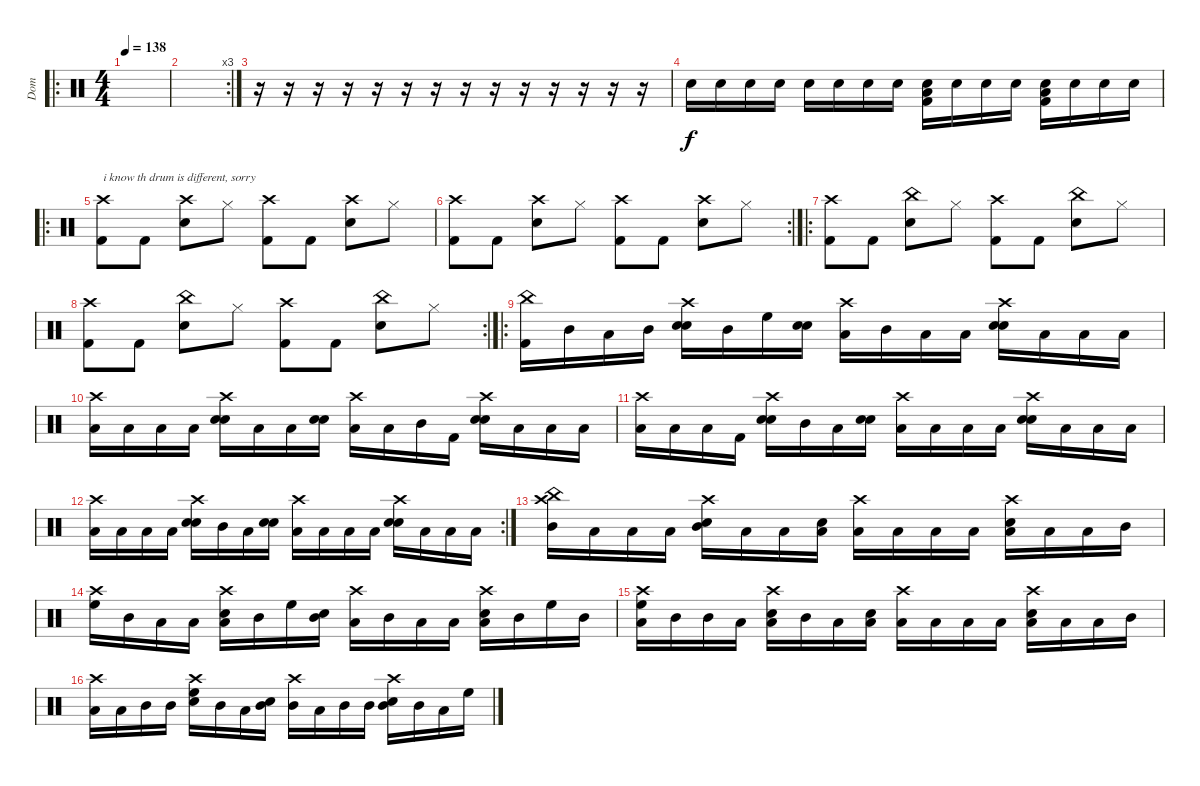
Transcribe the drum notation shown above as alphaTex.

\track ("Dom" "Dom") {instrument percussion}
\staff {score}
\articulation defaults
\ro
\ts (4 4)
\tempo 138
\clef neutral
\ks c
|
\rc 3
|
r.16 r.16 r.16 r.16 r.16 r.16 r.16 r.16 r.16 r.16 r.16 r.16 r.16 r.16 |
"Snare (hit) 2".16 "Snare (hit) 2".16 "Snare (hit) 2".16 "Snare (hit) 2".16 "Snare (hit) 2".16 "Snare (hit) 2".16 "Snare (hit) 2".16 "Snare (hit) 2".16 ("Snare (hit) 2" "Kick (hit) 2" "Low Floor Tom (hit)").16 "Snare (hit) 2".16 "Snare (hit) 2".16 "Snare (hit) 2".16 ("Snare (hit) 2" "Kick (hit) 2" "Low Floor Tom (hit)").16 "Snare (hit) 2".16 "Snare (hit) 2".16 "Snare (hit) 2".16 |
\ro
("Crash high (hit)" "Kick (hit) 2").8{txt "i know th drum is different, sorry"} "Kick (hit) 2".8 ("Crash high (hit)" "Snare (hit) 2").8 "Hi-Hat (closed)".8 ("Crash high (hit)" "Kick (hit) 2").8 "Kick (hit) 2".8 ("Crash high (hit)" "Snare (hit) 2").8 "Hi-Hat (closed)".8 |
\rc 2
("Crash high (hit)" "Kick (hit) 2").8 "Kick (hit) 2".8 ("Crash high (hit)" "Snare (hit) 2").8 "Hi-Hat (closed)".8 ("Crash high (hit)" "Kick (hit) 2").8 "Kick (hit) 2".8 ("Crash high (hit)" "Snare (hit) 2").8 "Hi-Hat (closed)".8 |
\ro
("Crash high (hit)" "Kick (hit) 2").8 "Kick (hit) 2".8 ("China (hit)" "Snare (hit) 2").8 "Hi-Hat (closed)".8 ("Crash high (hit)" "Kick (hit) 2").8 "Kick (hit) 2".8 ("China (hit)" "Snare (hit) 2").8 "Hi-Hat (closed)".8 |
\rc 2
("Crash high (hit)" "Kick (hit) 2").8 "Kick (hit) 2".8 ("China (hit)" "Snare (hit) 2").8 "Hi-Hat (closed)".8 ("Crash high (hit)" "Kick (hit) 2").8 "Kick (hit) 2".8 ("China (hit)" "Snare (hit) 2").8 "Hi-Hat (closed)".8 |
\ro
("China (hit)" "Kick (hit) 2").16 "Mid Tom (hit)".16 "Low Floor Tom (hit)".16 "Mid Tom (hit)".16 ("Snare (hit) 2" "Crash high (hit)" "Snare (hit) 2").16 "Mid Tom (hit)".16 "High Floor Tom (hit)".16 ("Snare (hit) 2" "Snare (hit) 2").16 ("Crash high (hit)" "Low Tom (hit)").16 "Mid Tom (hit)".16 "Low Tom (hit)".16 "Low Tom (hit)".16 ("Snare (hit) 2" "Crash high (hit)" "Snare (hit) 2").16 "Low Floor Tom (hit)".16 "Low Tom (hit)".16 "Low Floor Tom (hit)".16 |
("Crash high (hit)" "Low Floor Tom (hit)").16 "Low Tom (hit)".16 "Low Floor Tom (hit)".16 "Low Floor Tom (hit)".16 ("Snare (hit) 2" "Crash high (hit)" "Snare (hit) 2").16 "Low Floor Tom (hit)".16 "Low Floor Tom (hit)".16 ("Snare (hit) 2" "Snare (hit) 2").16 ("Crash high (hit)" "Low Floor Tom (hit)").16 "Low Tom (hit)".16 "Mid Tom (hit)".16 "Kick (hit) 2".16 ("Snare (hit) 2" "Crash high (hit)" "Snare (hit) 2").16 "Low Tom (hit)".16 "Low Floor Tom (hit)".16 "Low Floor Tom (hit)".16 |
("Crash high (hit)" "Low Tom (hit)").16 "Low Floor Tom (hit)".16 "Low Tom (hit)".16 "Kick (hit) 2".16 ("Snare (hit) 2" "Crash high (hit)" "Snare (hit) 2").16 "Mid Tom (hit)".16 "Low Tom (hit)".16 ("Snare (hit) 2" "Snare (hit) 2").16 ("Crash high (hit)" "Low Tom (hit)").16 "Low Tom (hit)".16 "Low Floor Tom (hit)".16 "Low Tom (hit)".16 ("Snare (hit) 2" "Crash high (hit)" "Snare (hit) 2").16 "Low Tom (hit)".16 "Low Tom (hit)".16 "Low Tom (hit)".16 |
\rc 2
("Crash high (hit)" "Low Tom (hit)").16 "Low Tom (hit)".16 "Low Tom (hit)".16 "Low Floor Tom (hit)".16 ("Snare (hit) 2" "Crash high (hit)" "Snare (hit) 2").16 "Mid Tom (hit)".16 "Low Tom (hit)".16 ("Snare (hit) 2" "Snare (hit) 2").16 ("Crash high (hit)" "Low Floor Tom (hit)").16 "Low Floor Tom (hit)".16 "Low Floor Tom (hit)".16 "Low Floor Tom (hit)".16 ("Snare (hit) 2" "Crash high (hit)" "Snare (hit) 2").16 "Low Floor Tom (hit)".16 "Low Tom (hit)".16 "Low Floor Tom (hit)".16 |
("Crash high (hit)" "China (hit)" "Mid Tom (hit)").16 "Low Tom (hit)".16 "Low Floor Tom (hit)".16 "Low Tom (hit)".16 ("Crash high (hit)" "Snare (hit) 2" "Mid Tom (hit)").16 "Low Tom (hit)".16 "Low Floor Tom (hit)".16 ("Snare (hit) 2" "Low Tom (hit)").16 ("Crash high (hit)" "Low Tom (hit)").16 "Low Tom (hit)".16 "Low Floor Tom (hit)".16 "Low Tom (hit)".16 ("Crash high (hit)" "Snare (hit) 2" "Low Tom (hit)").16 "Low Floor Tom (hit)".16 "Low Tom (hit)".16 "Mid Tom (hit)".16 |
("Crash high (hit)" "High Floor Tom (hit)").16 "Mid Tom (hit)".16 "Low Tom (hit)".16 "Low Floor Tom (hit)".16 ("Crash high (hit)" "Snare (hit) 2" "Low Tom (hit)").16 "Mid Tom (hit)".16 "High Floor Tom (hit)".16 ("Snare (hit) 2" "Mid Tom (hit)").16 ("Crash high (hit)" "Low Tom (hit)").16 "Mid Tom (hit)".16 "Low Tom (hit)".16 "Low Floor Tom (hit)".16 ("Crash high (hit)" "Snare (hit) 2" "Low Tom (hit)").16 "Mid Tom (hit)".16 "High Floor Tom (hit)".16 "Mid Tom (hit)".16 |
("Crash high (hit)" "High Floor Tom (hit)" "Low Tom (hit)").16 "Mid Tom (hit)".16 "Mid Tom (hit)".16 "Low Tom (hit)".16 ("Crash high (hit)" "Snare (hit) 2" "Low Tom (hit)").16 "Mid Tom (hit)".16 "Low Tom (hit)".16 ("Snare (hit) 2" "Low Floor Tom (hit)").16 ("Crash high (hit)" "Low Tom (hit)").16 "Low Tom (hit)".16 "Low Floor Tom (hit)".16 "Low Tom (hit)".16 ("Crash high (hit)" "Snare (hit) 2" "Low Floor Tom (hit)").16 "Low Tom (hit)".16 "Low Floor Tom (hit)".16 "Mid Tom (hit)".16 |
("Crash high (hit)" "Low Floor Tom (hit)").16 "Low Tom (hit)".16 "Mid Tom (hit)".16 "Mid Tom (hit)".16 ("Crash high (hit)" "Snare (hit) 2" "High Floor Tom (hit)").16 "Mid Tom (hit)".16 "Low Tom (hit)".16 ("Snare (hit) 2" "Mid Tom (hit)").16 ("Crash high (hit)" "Mid Tom (hit)").16 "Low Tom (hit)".16 "Mid Tom (hit)".16 "Mid Tom (hit)".16 ("Crash high (hit)" "Snare (hit) 2" "Mid Tom (hit)").16 "Mid Tom (hit)".16 "Low Tom (hit)".16 "High Floor Tom (hit)".16
